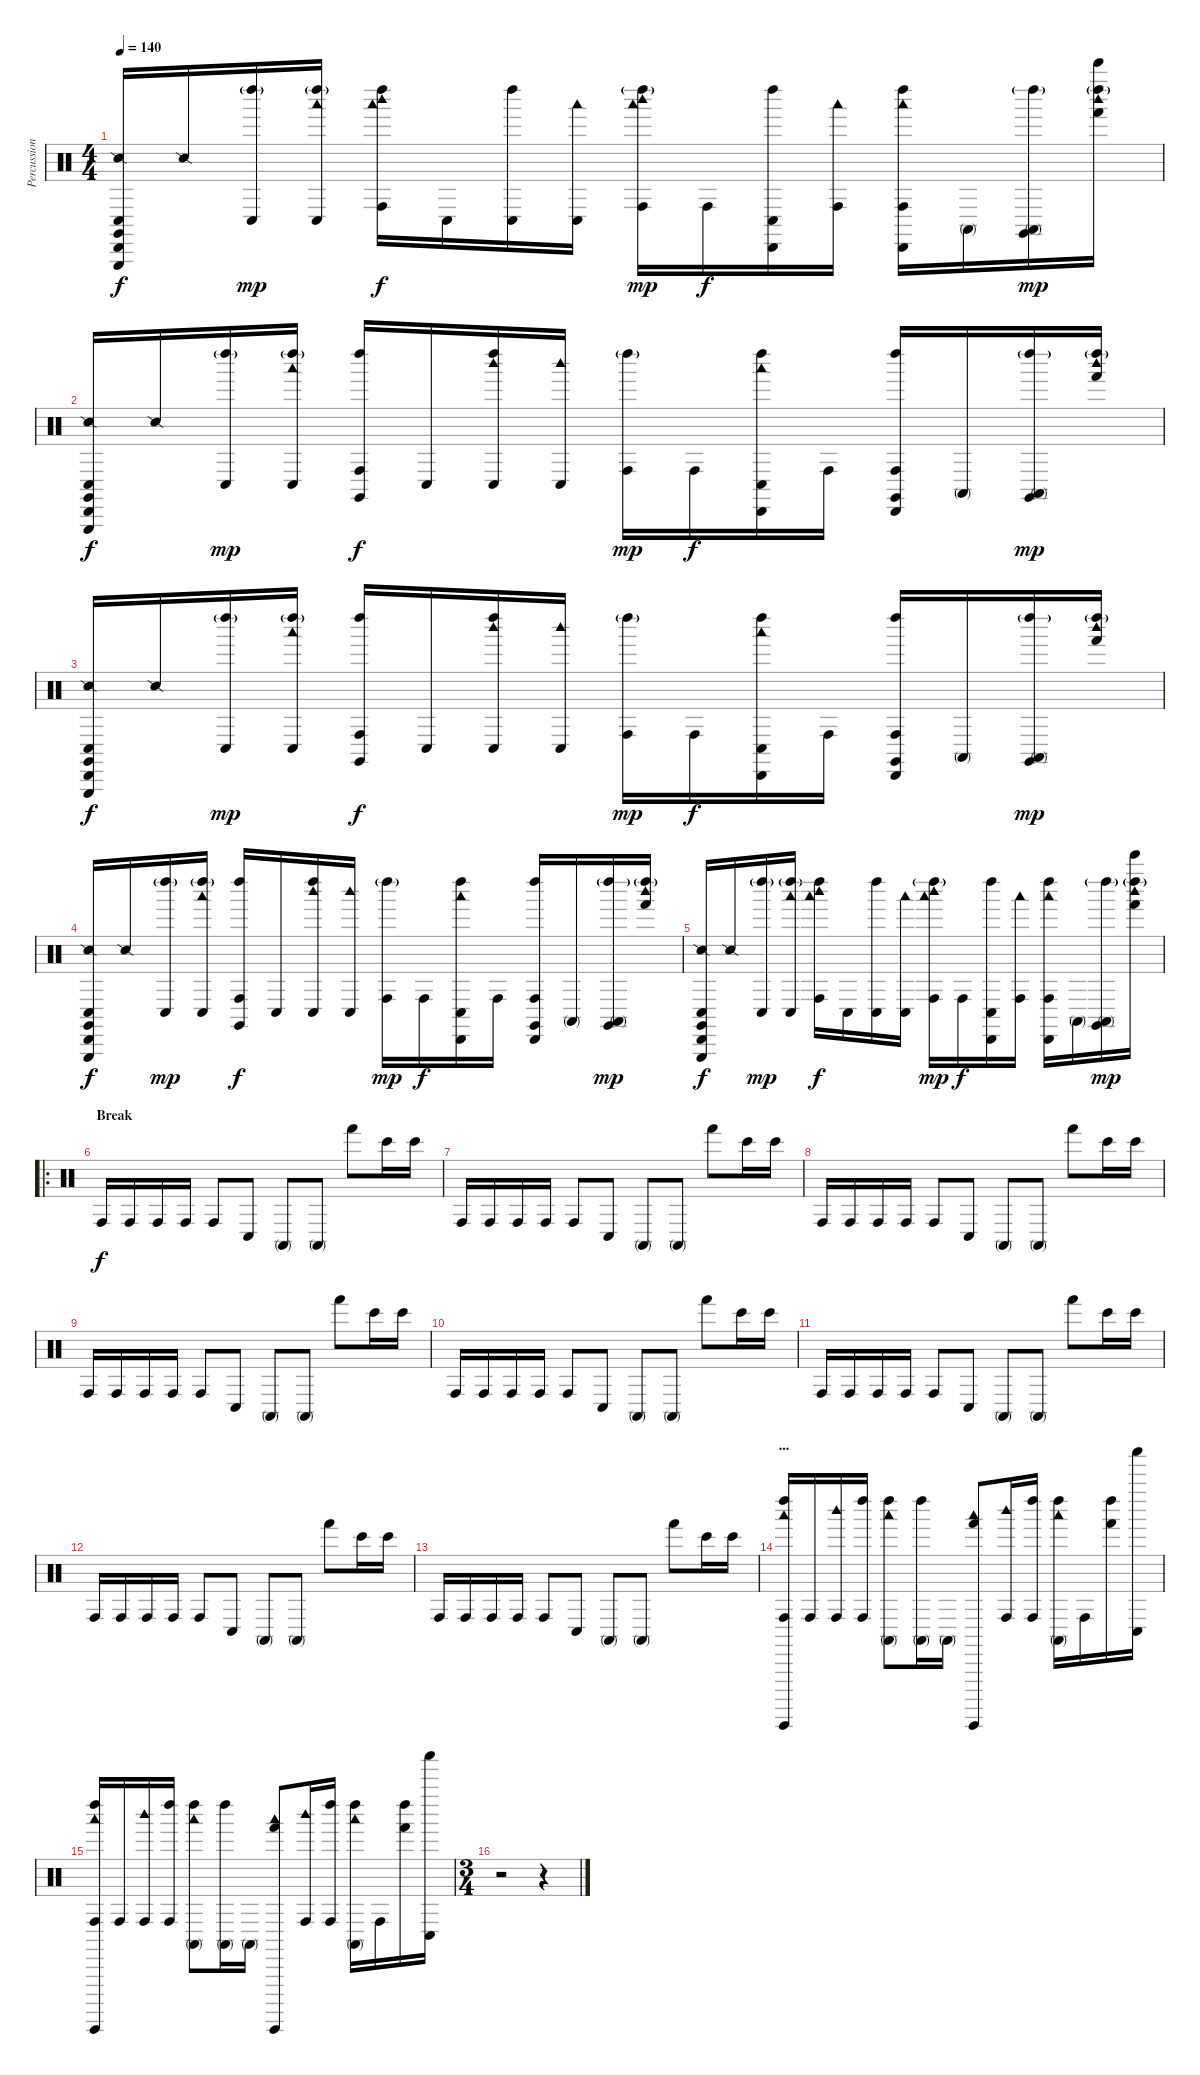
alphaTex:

\track ("Percussions" "Percussion") {instrument percussion}
\staff {score}
\articulation defaults
\ts (4 4)
\tempo 140
\clef neutral
\ks c
("Conga low (hit)" "Snare (side stick) 2" "Claves (hit)" "Cabasa (hit)" "Triangle (hit)").16{dy f} "Snare (side stick) 2".16 ("Conga low (hit)" "Left Maraca (hit)"{g}).16{dy mp} ("Conga low (hit)" "Woodblock low (hit)" "Left Maraca (hit)"{g}).16 ("Conga high (hit)" "Woodblock low (hit)" "Woodblock high (hit)" "Left Maraca (hit)").16{dy f} "Conga low (hit)".16 ("Conga low (hit)" "Left Maraca (hit)").16 ("Conga low (hit)" "Woodblock low (hit)").16 ("Conga high (hit)" "Woodblock low (hit)" "Woodblock high (hit)" "Left Maraca (hit)"{g}).16{dy mp} "Conga high (hit)".16{dy f} ("Conga low (hit)" "Cabasa (hit)" "Left Maraca (hit)").16 ("Conga high (hit)" "Woodblock low (hit)").16 ("Conga high (hit)" "Woodblock low (hit)" "Cabasa (hit)" "Left Maraca (hit)").16 "Conga high (mute)".16 ("Conga high (mute)" "Claves (hit)" "Left Maraca (hit)"{g}).16{dy mp} ("Hand (hit)" "Woodblock high (hit)" "Bell Tree (hit)" "Left Maraca (hit)"{g}).16 |
("Conga low (hit)" "Snare (side stick) 2" "Claves (hit)" "Cabasa (hit)" "Triangle (hit)").16{dy f} "Snare (side stick) 2".16 ("Conga low (hit)" "Left Maraca (hit)"{g}).16{dy mp} ("Conga low (hit)" "Woodblock low (hit)" "Left Maraca (hit)"{g}).16 ("Conga high (hit)" "Claves (hit)" "Left Maraca (hit)").16{dy f} "Conga low (hit)".16 ("Conga low (hit)" "Woodblock high (hit)" "Left Maraca (hit)").16 ("Conga low (hit)" "Woodblock high (hit)").16 ("Conga high (hit)" "Left Maraca (hit)"{g}).16{dy mp} "Conga high (hit)".16{dy f} ("Conga low (hit)" "Woodblock low (hit)" "Cabasa (hit)" "Left Maraca (hit)").16 "Conga high (hit)".16 ("Conga high (hit)" "Claves (hit)" "Cabasa (hit)" "Left Maraca (hit)").16 "Conga high (mute)".16 ("Conga high (mute)" "Claves (hit)" "Left Maraca (hit)"{g}).16{dy mp} ("Hand (hit)" "Woodblock high (hit)" "Left Maraca (hit)"{g}).16 |
("Conga low (hit)" "Snare (side stick) 2" "Claves (hit)" "Cabasa (hit)" "Triangle (hit)").16{dy f} "Snare (side stick) 2".16 ("Conga low (hit)" "Left Maraca (hit)"{g}).16{dy mp} ("Conga low (hit)" "Woodblock low (hit)" "Left Maraca (hit)"{g}).16 ("Conga high (hit)" "Claves (hit)" "Left Maraca (hit)").16{dy f} "Conga low (hit)".16 ("Conga low (hit)" "Woodblock high (hit)" "Left Maraca (hit)").16 ("Conga low (hit)" "Woodblock high (hit)").16 ("Conga high (hit)" "Left Maraca (hit)"{g}).16{dy mp} "Conga high (hit)".16{dy f} ("Conga low (hit)" "Woodblock low (hit)" "Cabasa (hit)" "Left Maraca (hit)").16 "Conga high (hit)".16 ("Conga high (hit)" "Claves (hit)" "Cabasa (hit)" "Left Maraca (hit)").16 "Conga high (mute)".16 ("Conga high (mute)" "Claves (hit)" "Left Maraca (hit)"{g}).16{dy mp} ("Hand (hit)" "Woodblock high (hit)" "Left Maraca (hit)"{g}).16 |
("Conga low (hit)" "Snare (side stick) 2" "Claves (hit)" "Cabasa (hit)" "Triangle (hit)").16{dy f} "Snare (side stick) 2".16 ("Conga low (hit)" "Left Maraca (hit)"{g}).16{dy mp} ("Conga low (hit)" "Woodblock low (hit)" "Left Maraca (hit)"{g}).16 ("Conga high (hit)" "Claves (hit)" "Left Maraca (hit)").16{dy f} "Conga low (hit)".16 ("Conga low (hit)" "Woodblock high (hit)" "Left Maraca (hit)").16 ("Conga low (hit)" "Woodblock high (hit)").16 ("Conga high (hit)" "Left Maraca (hit)"{g}).16{dy mp} "Conga high (hit)".16{dy f} ("Conga low (hit)" "Woodblock low (hit)" "Cabasa (hit)" "Left Maraca (hit)").16 "Conga high (hit)".16 ("Conga high (hit)" "Claves (hit)" "Cabasa (hit)" "Left Maraca (hit)").16 "Conga high (mute)".16 ("Conga high (mute)" "Claves (hit)" "Left Maraca (hit)"{g}).16{dy mp} ("Hand (hit)" "Woodblock high (hit)" "Left Maraca (hit)"{g}).16 |
("Conga low (hit)" "Snare (side stick) 2" "Claves (hit)" "Cabasa (hit)" "Triangle (hit)").16{dy f} "Snare (side stick) 2".16 ("Conga low (hit)" "Left Maraca (hit)"{g}).16{dy mp} ("Conga low (hit)" "Woodblock low (hit)" "Left Maraca (hit)"{g}).16 ("Conga high (hit)" "Woodblock low (hit)" "Woodblock high (hit)" "Left Maraca (hit)").16{dy f} "Conga low (hit)".16 ("Conga low (hit)" "Left Maraca (hit)").16 ("Conga low (hit)" "Woodblock low (hit)").16 ("Conga high (hit)" "Woodblock low (hit)" "Woodblock high (hit)" "Left Maraca (hit)"{g}).16{dy mp} "Conga high (hit)".16{dy f} ("Conga low (hit)" "Cabasa (hit)" "Left Maraca (hit)").16 ("Conga high (hit)" "Woodblock low (hit)").16 ("Conga high (hit)" "Woodblock low (hit)" "Cabasa (hit)" "Left Maraca (hit)").16 "Conga high (mute)".16 ("Conga high (mute)" "Claves (hit)" "Left Maraca (hit)"{g}).16{dy mp} ("Hand (hit)" "Woodblock high (hit)" "Bell Tree (hit)" "Left Maraca (hit)"{g}).16 |
\ro
\section ("" "Break")
"Conga high (hit)".16{dy f} "Conga high (hit)".16 "Conga high (hit)".16 "Conga high (hit)".16 "Conga high (hit)".8 "Conga low (hit)".8 "Conga high (mute)".8 "Conga high (mute)".8 "Hand (hit)".8 "Bongo High (hit)".16 "Bongo High (hit)".16 |
"Conga high (hit)".16 "Conga high (hit)".16 "Conga high (hit)".16 "Conga high (hit)".16 "Conga high (hit)".8 "Conga low (hit)".8 "Conga high (mute)".8 "Conga high (mute)".8 "Hand (hit)".8 "Bongo High (hit)".16 "Bongo High (hit)".16 |
"Conga high (hit)".16 "Conga high (hit)".16 "Conga high (hit)".16 "Conga high (hit)".16 "Conga high (hit)".8 "Conga low (hit)".8 "Conga high (mute)".8 "Conga high (mute)".8 "Hand (hit)".8 "Bongo High (hit)".16 "Bongo High (hit)".16 |
"Conga high (hit)".16 "Conga high (hit)".16 "Conga high (hit)".16 "Conga high (hit)".16 "Conga high (hit)".8 "Conga low (hit)".8 "Conga high (mute)".8 "Conga high (mute)".8 "Hand (hit)".8 "Bongo High (hit)".16 "Bongo High (hit)".16 |
"Conga high (hit)".16 "Conga high (hit)".16 "Conga high (hit)".16 "Conga high (hit)".16 "Conga high (hit)".8 "Conga low (hit)".8 "Conga high (mute)".8 "Conga high (mute)".8 "Hand (hit)".8 "Bongo High (hit)".16 "Bongo High (hit)".16 |
"Conga high (hit)".16 "Conga high (hit)".16 "Conga high (hit)".16 "Conga high (hit)".16 "Conga high (hit)".8 "Conga low (hit)".8 "Conga high (mute)".8 "Conga high (mute)".8 "Hand (hit)".8 "Bongo High (hit)".16 "Bongo High (hit)".16 |
"Conga high (hit)".16 "Conga high (hit)".16 "Conga high (hit)".16 "Conga high (hit)".16 "Conga high (hit)".8 "Conga low (hit)".8 "Conga high (mute)".8 "Conga high (mute)".8 "Hand (hit)".8 "Bongo High (hit)".16 "Bongo High (hit)".16 |
"Conga high (hit)".16 "Conga high (hit)".16 "Conga high (hit)".16 "Conga high (hit)".16 "Conga high (hit)".8 "Conga low (hit)".8 "Conga high (mute)".8 "Conga high (mute)".8 "Hand (hit)".8 "Bongo High (hit)".16 "Bongo High (hit)".16 |
\section ("" "...")
("Woodblock low (hit)" "Left Maraca (hit)" "Guiro (hit)" "Conga high (hit)").16 "Conga high (hit)".16 ("Woodblock high (hit)" "Conga high (hit)").16 ("Left Maraca (hit)" "Conga high (hit)").16 ("Woodblock low (hit)" "Left Maraca (hit)" "Conga high (mute)").8 ("Left Maraca (hit)" "Conga high (mute)").16 "Conga high (mute)".16 ("Woodblock low (hit)" "Guiro (hit)" "Hand (hit)").8 ("Woodblock high (hit)" "Conga high (hit)").16 ("Left Maraca (hit)" "Conga high (hit)").16 ("Woodblock low (hit)" "Left Maraca (hit)" "Conga high (mute)").16 "Conga high (hit)".16 ("Left Maraca (hit)" "Hand (hit)").16 ("Shaker (hit)" "Conga low (hit)").16 |
("Woodblock low (hit)" "Left Maraca (hit)" "Guiro (hit)" "Conga high (hit)").16 "Conga high (hit)".16 ("Woodblock high (hit)" "Conga high (hit)").16 ("Left Maraca (hit)" "Conga high (hit)").16 ("Woodblock low (hit)" "Left Maraca (hit)" "Conga high (mute)").8 ("Left Maraca (hit)" "Conga high (mute)").16 "Conga high (mute)".16 ("Woodblock low (hit)" "Guiro (hit)" "Hand (hit)").8 ("Woodblock high (hit)" "Conga high (hit)").16 ("Left Maraca (hit)" "Conga high (hit)").16 ("Woodblock low (hit)" "Left Maraca (hit)" "Conga high (mute)").16 "Conga high (hit)".16 ("Left Maraca (hit)" "Hand (hit)").16 ("Shaker (hit)" "Conga low (hit)").16 |
\ts (3 4)
r.2 r.4
